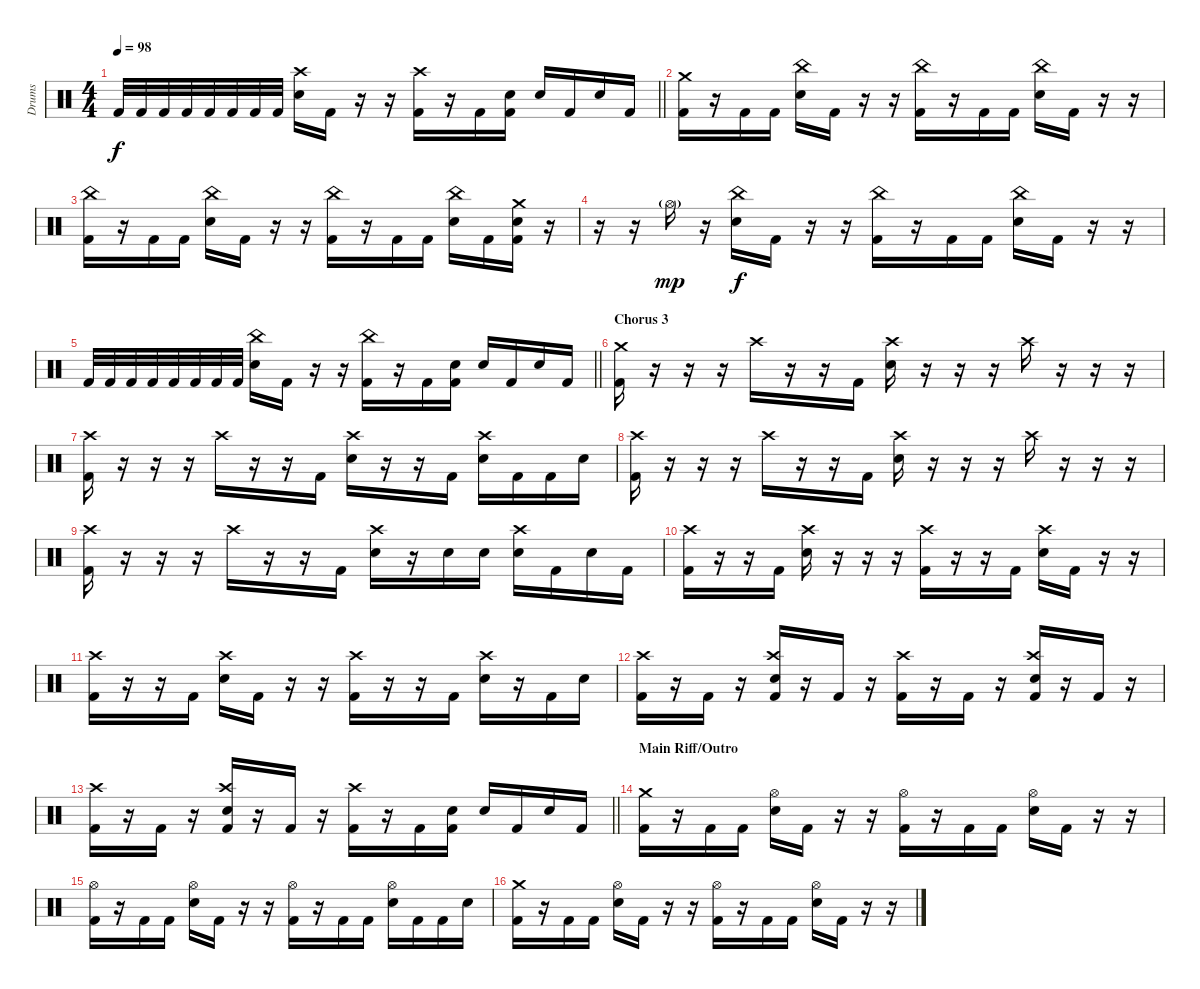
\track ("Drums" "Drums") {instrument percussion}
\staff {score}
\articulation defaults
\ts (4 4)
\tempo 98
\clef neutral
\barLineRight lightlight
\ks c "Kick (hit) 2".32{dy f} "Kick (hit) 2".32 "Kick (hit) 2".32 "Kick (hit) 2".32 "Kick (hit) 2".32 "Kick (hit) 2".32 "Kick (hit) 2".32 "Kick (hit) 2".32
("Crash high (hit)" "Electric Snare (hit)").16 "Kick (hit) 2".16 r.16 r.16 ("Crash high (hit)" "Kick (hit) 2").16 r.16 "Kick (hit) 2".16 ("Electric Snare (hit)" "Kick (hit) 2").16 "Electric Snare (hit)".16 "Kick (hit) 2".16 "Electric Snare (hit)".16 "Kick (hit) 2".16 |
("Crash medium (hit)" "Kick (hit) 2").16 r.16 "Kick (hit) 2".16 "Kick (hit) 2".16 ("China (hit)" "Electric Snare (hit)").16 "Kick (hit) 2".16 r.16 r.16 ("China (hit)" "Kick (hit) 2").16 r.16 "Kick (hit) 2".16 "Kick (hit) 2".16 ("China (hit)" "Electric Snare (hit)").16 "Kick (hit) 2".16 r.16 r.16 |
("China (hit)" "Kick (hit) 2").16 r.16 "Kick (hit) 2".16 "Kick (hit) 2".16 ("China (hit)" "Electric Snare (hit)").16 "Kick (hit) 2".16 r.16 r.16 ("China (hit)" "Kick (hit) 2").16 r.16 "Kick (hit) 2".16 "Kick (hit) 2".16 ("China (hit)" "Electric Snare (hit)").16 "Kick (hit) 2".16 ("Crash medium (hit)" "Electric Snare (hit)" "Kick (hit) 2").16 r.16 |
r.16 r.16 "Hi-Hat (open)"{g}.16{dy mp} r.16 ("China (hit)" "Electric Snare (hit)").16{dy f} "Kick (hit) 2".16 r.16 r.16 ("China (hit)" "Kick (hit) 2").16 r.16 "Kick (hit) 2".16 "Kick (hit) 2".16 ("China (hit)" "Electric Snare (hit)").16 "Kick (hit) 2".16 r.16 r.16 |
\barLineRight lightlight "Kick (hit) 2".32 "Kick (hit) 2".32 "Kick (hit) 2".32 "Kick (hit) 2".32 "Kick (hit) 2".32 "Kick (hit) 2".32 "Kick (hit) 2".32 "Kick (hit) 2".32
("China (hit)" "Electric Snare (hit)").16 "Kick (hit) 2".16 r.16 r.16 ("China (hit)" "Kick (hit) 2").16 r.16 "Kick (hit) 2".16 ("Electric Snare (hit)" "Kick (hit) 2").16 "Electric Snare (hit)".16 "Kick (hit) 2".16 "Electric Snare (hit)".16 "Kick (hit) 2".16 |
\section ("" "Chorus 3")
("Crash medium (hit)" "Kick (hit) 2").16 r.16 r.16 r.16 "Crash high (hit)".16 r.16 r.16 "Kick (hit) 2".16 ("Crash high (hit)" "Electric Snare (hit)").16 r.16 r.16 r.16 "Crash high (hit)".16 r.16 r.16 r.16 |
("Crash high (hit)" "Kick (hit) 2").16 r.16 r.16 r.16 "Crash high (hit)".16 r.16 r.16 "Kick (hit) 2".16 ("Crash high (hit)" "Electric Snare (hit)").16 r.16 r.16 "Kick (hit) 2".16 ("Crash high (hit)" "Electric Snare (hit)").16 "Kick (hit) 2".16 "Kick (hit) 2".16 "Electric Snare (hit)".16 |
("Crash high (hit)" "Kick (hit) 2").16 r.16 r.16 r.16 "Crash high (hit)".16 r.16 r.16 "Kick (hit) 2".16 ("Crash high (hit)" "Electric Snare (hit)").16 r.16 r.16 r.16 "Crash high (hit)".16 r.16 r.16 r.16 |
("Crash high (hit)" "Kick (hit) 2").16 r.16 r.16 r.16 "Crash high (hit)".16 r.16 r.16 "Kick (hit) 2".16 ("Crash high (hit)" "Electric Snare (hit)").16 r.16 "Electric Snare (hit)".16 "Electric Snare (hit)".16 ("Crash high (hit)" "Electric Snare (hit)").16 "Kick (hit) 2".16 "Electric Snare (hit)".16 "Kick (hit) 2".16 |
("Crash high (hit)" "Kick (hit) 2").16 r.16 r.16 "Kick (hit) 2".16 ("Crash high (hit)" "Electric Snare (hit)").16 r.16 r.16 r.16 ("Crash high (hit)" "Kick (hit) 2").16 r.16 r.16 "Kick (hit) 2".16 ("Crash high (hit)" "Electric Snare (hit)").16 "Kick (hit) 2".16 r.16 r.16 |
("Crash high (hit)" "Kick (hit) 2").16 r.16 r.16 "Kick (hit) 2".16 ("Crash high (hit)" "Electric Snare (hit)").16 "Kick (hit) 2".16 r.16 r.16 ("Crash high (hit)" "Kick (hit) 2").16 r.16 r.16 "Kick (hit) 2".16 ("Crash high (hit)" "Electric Snare (hit)").16 r.16 "Kick (hit) 2".16 "Electric Snare (hit)".16 |
("Crash high (hit)" "Kick (hit) 2").16 r.16 "Kick (hit) 2".16 r.16 ("Crash high (hit)" "Electric Snare (hit)" "Kick (hit) 2").16 r.16 "Kick (hit) 2".16 r.16 ("Crash high (hit)" "Kick (hit) 2").16 r.16 "Kick (hit) 2".16 r.16 ("Crash high (hit)" "Electric Snare (hit)" "Kick (hit) 2").16 r.16 "Kick (hit) 2".16 r.16 |
\barLineRight lightlight
("Crash high (hit)" "Kick (hit) 2").16 r.16 "Kick (hit) 2".16 r.16 ("Crash high (hit)" "Electric Snare (hit)" "Kick (hit) 2").16 r.16 "Kick (hit) 2".16 r.16 ("Crash high (hit)" "Kick (hit) 2").16 r.16 "Kick (hit) 2".16 ("Electric Snare (hit)" "Kick (hit) 2").16 "Electric Snare (hit)".16 "Kick (hit) 2".16 "Electric Snare (hit)".16 "Kick (hit) 2".16 |
\section ("" "Main Riff/Outro")
("Crash medium (hit)" "Kick (hit) 2").16 r.16 "Kick (hit) 2".16 "Kick (hit) 2".16 ("Hi-Hat (open)" "Electric Snare (hit)").16 "Kick (hit) 2".16 r.16 r.16 ("Hi-Hat (open)" "Kick (hit) 2").16 r.16 "Kick (hit) 2".16 "Kick (hit) 2".16 ("Hi-Hat (open)" "Electric Snare (hit)").16 "Kick (hit) 2".16 r.16 r.16 |
("Hi-Hat (open)" "Kick (hit) 2").16 r.16 "Kick (hit) 2".16 "Kick (hit) 2".16 ("Hi-Hat (open)" "Electric Snare (hit)").16 "Kick (hit) 2".16 r.16 r.16 ("Hi-Hat (open)" "Kick (hit) 2").16 r.16 "Kick (hit) 2".16 "Kick (hit) 2".16 ("Hi-Hat (open)" "Electric Snare (hit)").16 "Kick (hit) 2".16 "Kick (hit) 2".16 "Electric Snare (hit)".16 |
("Crash medium (hit)" "Kick (hit) 2").16 r.16 "Kick (hit) 2".16 "Kick (hit) 2".16 ("Hi-Hat (open)" "Electric Snare (hit)").16 "Kick (hit) 2".16 r.16 r.16 ("Hi-Hat (open)" "Kick (hit) 2").16 r.16 "Kick (hit) 2".16 "Kick (hit) 2".16 ("Hi-Hat (open)" "Electric Snare (hit)").16 "Kick (hit) 2".16 r.16 r.16
